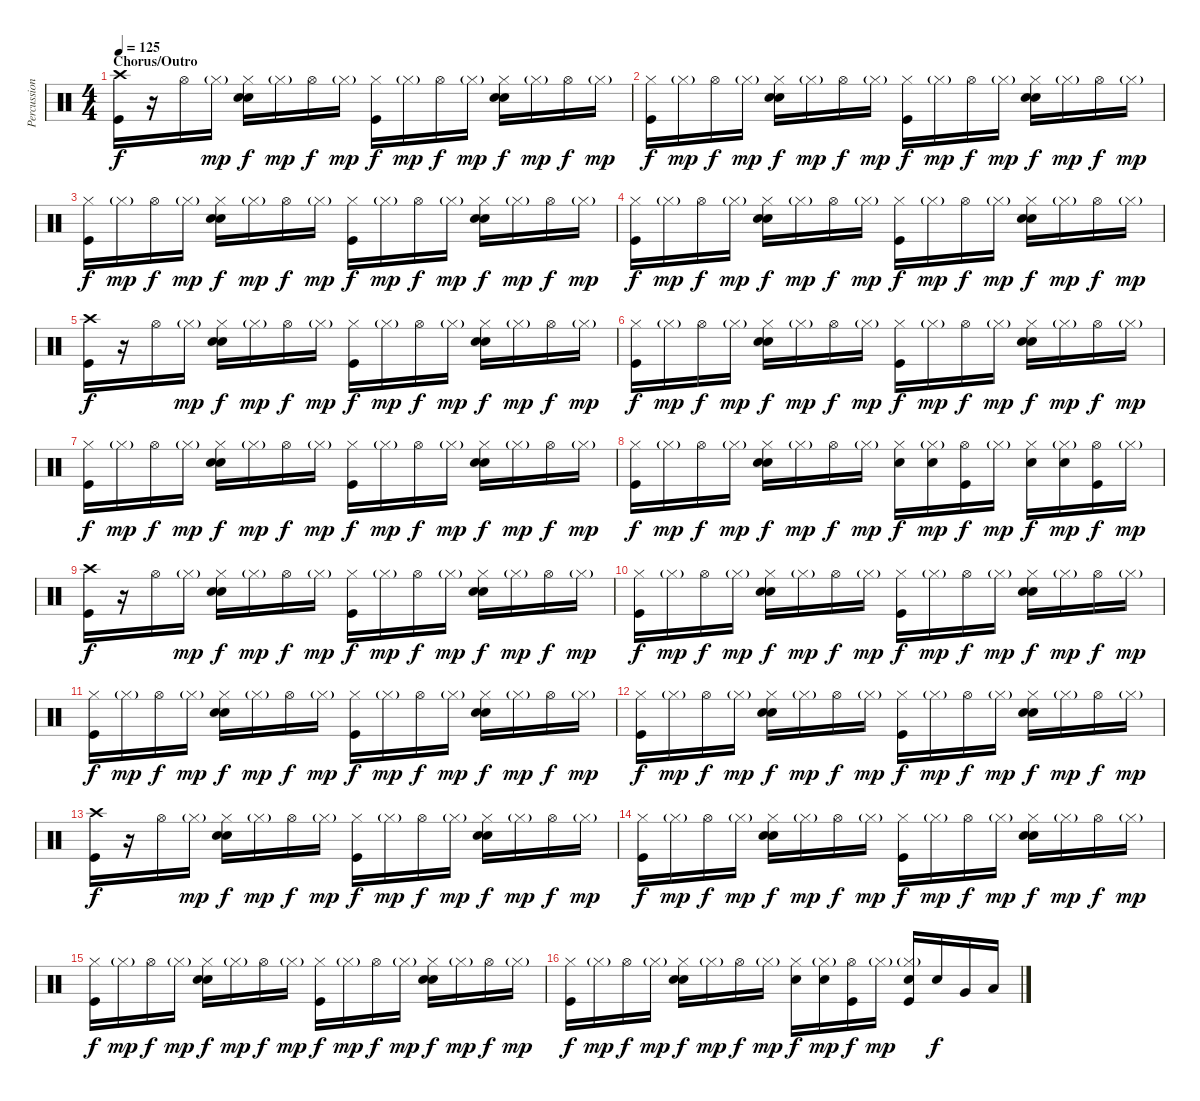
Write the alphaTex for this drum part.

\track ("Percussion" "Percussion") {instrument percussion}
\staff {score}
\articulation defaults
\ts (4 4)
\section ("" "Chorus/Outro")
\tempo 125
\clef neutral
\ks c
("Crash high (hit)" "Kick (hit)").16{dy f} r.16 "Hi-Hat (open)".16 "Hi-Hat (closed)"{g}.16{dy mp} ("Hi-Hat (closed)" "Hand Clap (hit)" "Snare (hit) 2").16{dy f} "Hi-Hat (closed)"{g}.16{dy mp} "Hi-Hat (open)".16{dy f} "Hi-Hat (closed)"{g}.16{dy mp} ("Hi-Hat (closed)" "Kick (hit)").16{dy f} "Hi-Hat (closed)"{g}.16{dy mp} "Hi-Hat (open)".16{dy f} "Hi-Hat (closed)"{g}.16{dy mp} ("Hi-Hat (closed)" "Hand Clap (hit)" "Snare (hit) 2").16{dy f} "Hi-Hat (closed)"{g}.16{dy mp} "Hi-Hat (open)".16{dy f} "Hi-Hat (closed)"{g}.16{dy mp} |
("Hi-Hat (closed)" "Kick (hit)").16{dy f} "Hi-Hat (closed)"{g}.16{dy mp} "Hi-Hat (open)".16{dy f} "Hi-Hat (closed)"{g}.16{dy mp} ("Hi-Hat (closed)" "Hand Clap (hit)" "Snare (hit) 2").16{dy f} "Hi-Hat (closed)"{g}.16{dy mp} "Hi-Hat (open)".16{dy f} "Hi-Hat (closed)"{g}.16{dy mp} ("Hi-Hat (closed)" "Kick (hit)").16{dy f} "Hi-Hat (closed)"{g}.16{dy mp} "Hi-Hat (open)".16{dy f} "Hi-Hat (closed)"{g}.16{dy mp} ("Hi-Hat (closed)" "Hand Clap (hit)" "Snare (hit) 2").16{dy f} "Hi-Hat (closed)"{g}.16{dy mp} "Hi-Hat (open)".16{dy f} "Hi-Hat (closed)"{g}.16{dy mp} |
("Hi-Hat (closed)" "Kick (hit)").16{dy f} "Hi-Hat (closed)"{g}.16{dy mp} "Hi-Hat (open)".16{dy f} "Hi-Hat (closed)"{g}.16{dy mp} ("Hi-Hat (closed)" "Hand Clap (hit)" "Snare (hit) 2").16{dy f} "Hi-Hat (closed)"{g}.16{dy mp} "Hi-Hat (open)".16{dy f} "Hi-Hat (closed)"{g}.16{dy mp} ("Hi-Hat (closed)" "Kick (hit)").16{dy f} "Hi-Hat (closed)"{g}.16{dy mp} "Hi-Hat (open)".16{dy f} "Hi-Hat (closed)"{g}.16{dy mp} ("Hi-Hat (closed)" "Hand Clap (hit)" "Snare (hit) 2").16{dy f} "Hi-Hat (closed)"{g}.16{dy mp} "Hi-Hat (open)".16{dy f} "Hi-Hat (closed)"{g}.16{dy mp} |
("Hi-Hat (closed)" "Kick (hit)").16{dy f} "Hi-Hat (closed)"{g}.16{dy mp} "Hi-Hat (open)".16{dy f} "Hi-Hat (closed)"{g}.16{dy mp} ("Hi-Hat (closed)" "Hand Clap (hit)" "Snare (hit) 2").16{dy f} "Hi-Hat (closed)"{g}.16{dy mp} "Hi-Hat (open)".16{dy f} "Hi-Hat (closed)"{g}.16{dy mp} ("Hi-Hat (closed)" "Kick (hit)").16{dy f} "Hi-Hat (closed)"{g}.16{dy mp} "Hi-Hat (open)".16{dy f} "Hi-Hat (closed)"{g}.16{dy mp} ("Hi-Hat (closed)" "Hand Clap (hit)" "Snare (hit) 2").16{dy f} "Hi-Hat (closed)"{g}.16{dy mp} "Hi-Hat (open)".16{dy f} "Hi-Hat (closed)"{g}.16{dy mp} |
("Crash high (hit)" "Kick (hit)").16{dy f} r.16 "Hi-Hat (open)".16 "Hi-Hat (closed)"{g}.16{dy mp} ("Hi-Hat (closed)" "Hand Clap (hit)" "Snare (hit) 2").16{dy f} "Hi-Hat (closed)"{g}.16{dy mp} "Hi-Hat (open)".16{dy f} "Hi-Hat (closed)"{g}.16{dy mp} ("Hi-Hat (closed)" "Kick (hit)").16{dy f} "Hi-Hat (closed)"{g}.16{dy mp} "Hi-Hat (open)".16{dy f} "Hi-Hat (closed)"{g}.16{dy mp} ("Hi-Hat (closed)" "Hand Clap (hit)" "Snare (hit) 2").16{dy f} "Hi-Hat (closed)"{g}.16{dy mp} "Hi-Hat (open)".16{dy f} "Hi-Hat (closed)"{g}.16{dy mp} |
("Hi-Hat (closed)" "Kick (hit)").16{dy f} "Hi-Hat (closed)"{g}.16{dy mp} "Hi-Hat (open)".16{dy f} "Hi-Hat (closed)"{g}.16{dy mp} ("Hi-Hat (closed)" "Hand Clap (hit)" "Snare (hit) 2").16{dy f} "Hi-Hat (closed)"{g}.16{dy mp} "Hi-Hat (open)".16{dy f} "Hi-Hat (closed)"{g}.16{dy mp} ("Hi-Hat (closed)" "Kick (hit)").16{dy f} "Hi-Hat (closed)"{g}.16{dy mp} "Hi-Hat (open)".16{dy f} "Hi-Hat (closed)"{g}.16{dy mp} ("Hi-Hat (closed)" "Hand Clap (hit)" "Snare (hit) 2").16{dy f} "Hi-Hat (closed)"{g}.16{dy mp} "Hi-Hat (open)".16{dy f} "Hi-Hat (closed)"{g}.16{dy mp} |
("Hi-Hat (closed)" "Kick (hit)").16{dy f} "Hi-Hat (closed)"{g}.16{dy mp} "Hi-Hat (open)".16{dy f} "Hi-Hat (closed)"{g}.16{dy mp} ("Hi-Hat (closed)" "Hand Clap (hit)" "Snare (hit) 2").16{dy f} "Hi-Hat (closed)"{g}.16{dy mp} "Hi-Hat (open)".16{dy f} "Hi-Hat (closed)"{g}.16{dy mp} ("Hi-Hat (closed)" "Kick (hit)").16{dy f} "Hi-Hat (closed)"{g}.16{dy mp} "Hi-Hat (open)".16{dy f} "Hi-Hat (closed)"{g}.16{dy mp} ("Hi-Hat (closed)" "Hand Clap (hit)" "Snare (hit) 2").16{dy f} "Hi-Hat (closed)"{g}.16{dy mp} "Hi-Hat (open)".16{dy f} "Hi-Hat (closed)"{g}.16{dy mp} |
("Hi-Hat (closed)" "Kick (hit)").16{dy f} "Hi-Hat (closed)"{g}.16{dy mp} "Hi-Hat (open)".16{dy f} "Hi-Hat (closed)"{g}.16{dy mp} ("Hi-Hat (closed)" "Hand Clap (hit)" "Snare (hit) 2").16{dy f} "Hi-Hat (closed)"{g}.16{dy mp} "Hi-Hat (open)".16{dy f} "Hi-Hat (closed)"{g}.16{dy mp} ("Hi-Hat (closed)" "Snare (hit) 2").16{dy f} ("Hi-Hat (closed)"{g} "Snare (hit) 2").16{dy mp} ("Hi-Hat (open)" "Kick (hit)").16{dy f} "Hi-Hat (closed)"{g}.16{dy mp} ("Hi-Hat (closed)" "Snare (hit) 2").16{dy f} ("Hi-Hat (closed)"{g} "Snare (hit) 2").16{dy mp} ("Hi-Hat (open)" "Kick (hit)").16{dy f} "Hi-Hat (closed)"{g}.16{dy mp} |
("Crash high (hit)" "Kick (hit)").16{dy f} r.16 "Hi-Hat (open)".16 "Hi-Hat (closed)"{g}.16{dy mp} ("Hi-Hat (closed)" "Hand Clap (hit)" "Snare (hit) 2").16{dy f} "Hi-Hat (closed)"{g}.16{dy mp} "Hi-Hat (open)".16{dy f} "Hi-Hat (closed)"{g}.16{dy mp} ("Hi-Hat (closed)" "Kick (hit)").16{dy f} "Hi-Hat (closed)"{g}.16{dy mp} "Hi-Hat (open)".16{dy f} "Hi-Hat (closed)"{g}.16{dy mp} ("Hi-Hat (closed)" "Hand Clap (hit)" "Snare (hit) 2").16{dy f} "Hi-Hat (closed)"{g}.16{dy mp} "Hi-Hat (open)".16{dy f} "Hi-Hat (closed)"{g}.16{dy mp} |
("Hi-Hat (closed)" "Kick (hit)").16{dy f} "Hi-Hat (closed)"{g}.16{dy mp} "Hi-Hat (open)".16{dy f} "Hi-Hat (closed)"{g}.16{dy mp} ("Hi-Hat (closed)" "Hand Clap (hit)" "Snare (hit) 2").16{dy f} "Hi-Hat (closed)"{g}.16{dy mp} "Hi-Hat (open)".16{dy f} "Hi-Hat (closed)"{g}.16{dy mp} ("Hi-Hat (closed)" "Kick (hit)").16{dy f} "Hi-Hat (closed)"{g}.16{dy mp} "Hi-Hat (open)".16{dy f} "Hi-Hat (closed)"{g}.16{dy mp} ("Hi-Hat (closed)" "Hand Clap (hit)" "Snare (hit) 2").16{dy f} "Hi-Hat (closed)"{g}.16{dy mp} "Hi-Hat (open)".16{dy f} "Hi-Hat (closed)"{g}.16{dy mp} |
("Hi-Hat (closed)" "Kick (hit)").16{dy f} "Hi-Hat (closed)"{g}.16{dy mp} "Hi-Hat (open)".16{dy f} "Hi-Hat (closed)"{g}.16{dy mp} ("Hi-Hat (closed)" "Hand Clap (hit)" "Snare (hit) 2").16{dy f} "Hi-Hat (closed)"{g}.16{dy mp} "Hi-Hat (open)".16{dy f} "Hi-Hat (closed)"{g}.16{dy mp} ("Hi-Hat (closed)" "Kick (hit)").16{dy f} "Hi-Hat (closed)"{g}.16{dy mp} "Hi-Hat (open)".16{dy f} "Hi-Hat (closed)"{g}.16{dy mp} ("Hi-Hat (closed)" "Hand Clap (hit)" "Snare (hit) 2").16{dy f} "Hi-Hat (closed)"{g}.16{dy mp} "Hi-Hat (open)".16{dy f} "Hi-Hat (closed)"{g}.16{dy mp} |
("Hi-Hat (closed)" "Kick (hit)").16{dy f} "Hi-Hat (closed)"{g}.16{dy mp} "Hi-Hat (open)".16{dy f} "Hi-Hat (closed)"{g}.16{dy mp} ("Hi-Hat (closed)" "Hand Clap (hit)" "Snare (hit) 2").16{dy f} "Hi-Hat (closed)"{g}.16{dy mp} "Hi-Hat (open)".16{dy f} "Hi-Hat (closed)"{g}.16{dy mp} ("Hi-Hat (closed)" "Kick (hit)").16{dy f} "Hi-Hat (closed)"{g}.16{dy mp} "Hi-Hat (open)".16{dy f} "Hi-Hat (closed)"{g}.16{dy mp} ("Hi-Hat (closed)" "Hand Clap (hit)" "Snare (hit) 2").16{dy f} "Hi-Hat (closed)"{g}.16{dy mp} "Hi-Hat (open)".16{dy f} "Hi-Hat (closed)"{g}.16{dy mp} |
("Crash high (hit)" "Kick (hit)").16{dy f} r.16 "Hi-Hat (open)".16 "Hi-Hat (closed)"{g}.16{dy mp} ("Hi-Hat (closed)" "Hand Clap (hit)" "Snare (hit) 2").16{dy f} "Hi-Hat (closed)"{g}.16{dy mp} "Hi-Hat (open)".16{dy f} "Hi-Hat (closed)"{g}.16{dy mp} ("Hi-Hat (closed)" "Kick (hit)").16{dy f} "Hi-Hat (closed)"{g}.16{dy mp} "Hi-Hat (open)".16{dy f} "Hi-Hat (closed)"{g}.16{dy mp} ("Hi-Hat (closed)" "Hand Clap (hit)" "Snare (hit) 2").16{dy f} "Hi-Hat (closed)"{g}.16{dy mp} "Hi-Hat (open)".16{dy f} "Hi-Hat (closed)"{g}.16{dy mp} |
("Hi-Hat (closed)" "Kick (hit)").16{dy f} "Hi-Hat (closed)"{g}.16{dy mp} "Hi-Hat (open)".16{dy f} "Hi-Hat (closed)"{g}.16{dy mp} ("Hi-Hat (closed)" "Hand Clap (hit)" "Snare (hit) 2").16{dy f} "Hi-Hat (closed)"{g}.16{dy mp} "Hi-Hat (open)".16{dy f} "Hi-Hat (closed)"{g}.16{dy mp} ("Hi-Hat (closed)" "Kick (hit)").16{dy f} "Hi-Hat (closed)"{g}.16{dy mp} "Hi-Hat (open)".16{dy f} "Hi-Hat (closed)"{g}.16{dy mp} ("Hi-Hat (closed)" "Hand Clap (hit)" "Snare (hit) 2").16{dy f} "Hi-Hat (closed)"{g}.16{dy mp} "Hi-Hat (open)".16{dy f} "Hi-Hat (closed)"{g}.16{dy mp} |
("Hi-Hat (closed)" "Kick (hit)").16{dy f} "Hi-Hat (closed)"{g}.16{dy mp} "Hi-Hat (open)".16{dy f} "Hi-Hat (closed)"{g}.16{dy mp} ("Hi-Hat (closed)" "Hand Clap (hit)" "Snare (hit) 2").16{dy f} "Hi-Hat (closed)"{g}.16{dy mp} "Hi-Hat (open)".16{dy f} "Hi-Hat (closed)"{g}.16{dy mp} ("Hi-Hat (closed)" "Kick (hit)").16{dy f} "Hi-Hat (closed)"{g}.16{dy mp} "Hi-Hat (open)".16{dy f} "Hi-Hat (closed)"{g}.16{dy mp} ("Hi-Hat (closed)" "Hand Clap (hit)" "Snare (hit) 2").16{dy f} "Hi-Hat (closed)"{g}.16{dy mp} "Hi-Hat (open)".16{dy f} "Hi-Hat (closed)"{g}.16{dy mp} |
("Hi-Hat (closed)" "Kick (hit)").16{dy f} "Hi-Hat (closed)"{g}.16{dy mp} "Hi-Hat (open)".16{dy f} "Hi-Hat (closed)"{g}.16{dy mp} ("Hi-Hat (closed)" "Hand Clap (hit)" "Snare (hit) 2").16{dy f} "Hi-Hat (closed)"{g}.16{dy mp} "Hi-Hat (open)".16{dy f} "Hi-Hat (closed)"{g}.16{dy mp} ("Hi-Hat (closed)" "Snare (hit) 2").16{dy f} ("Hi-Hat (closed)"{g} "Snare (hit) 2").16{dy mp} ("Hi-Hat (open)" "Kick (hit)").16{dy f} "Hi-Hat (closed)"{g}.16{dy mp} ("Hi-Hat (closed)"{g} "Snare (hit) 2" "Kick (hit)").16 "Snare (hit) 2".16{dy f} "Very Low Tom (hit)".16 "Low Tom (hit)".16
